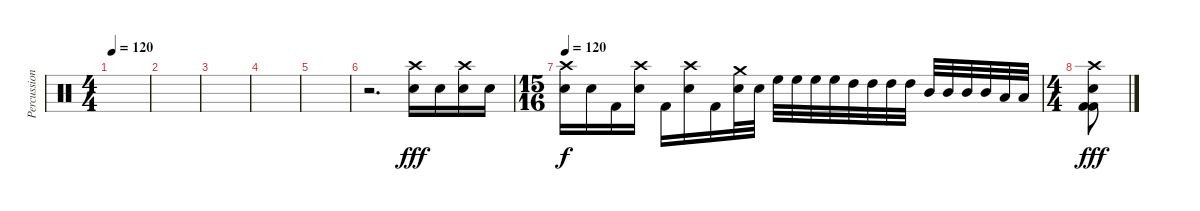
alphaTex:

\track ("Percussion" "Percussion") {instrument percussion}
\staff {score}
\articulation defaults
\ts (4 4)
\tempo 120
\clef neutral
\ks c
|
|
|
|
|
r.2{d} ("Crash high (hit)" "Snare (hit) 2").16{dy fff} "Snare (hit) 2".16 ("Crash high (hit)" "Snare (hit) 2").16 "Snare (hit) 2".16 |
\ts (15 16)
\tempo 120
("Crash high (hit)" "Snare (hit) 2").16{dy f} "Snare (hit) 2".16 "Kick (hit) 2".16 ("Crash high (hit)" "Snare (hit) 2").16 "Kick (hit) 2".16 ("Crash high (hit)" "Snare (hit) 2").16 "Kick (hit) 2".16 ("Crash medium (hit)" "Snare (hit) 2").32 "Snare (hit) 2".32 "High Floor Tom (hit)".32 "High Floor Tom (hit)".32 "High Floor Tom (hit)".32 "High Floor Tom (hit)".32 "High Tom (hit)".32 "High Tom (hit)".32 "High Tom (hit)".32 "High Tom (hit)".32 "Mid Tom (hit)".32 "Mid Tom (hit)".32 "Mid Tom (hit)".32 "Mid Tom (hit)".32 "Low Tom (hit)".32 "Low Tom (hit)".32 |
\ts (4 4)
("Crash high (hit)" "Snare (hit) 2" "Kick (hit) 2" "Kick (hit) 2").8{dy fff}
